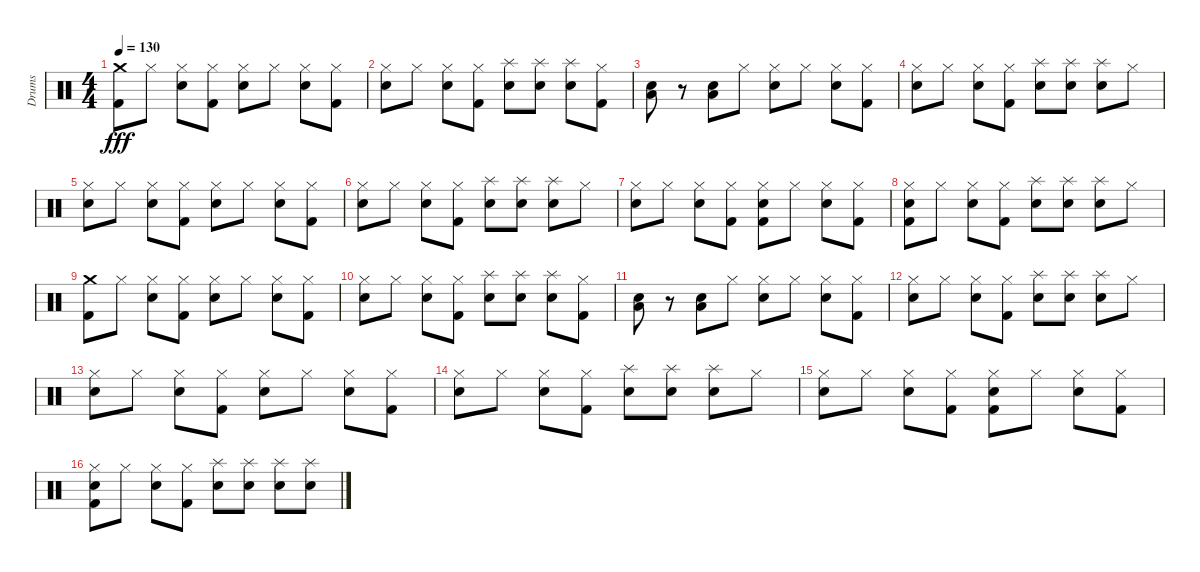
\track ("Drums" "Drums") {instrument percussion}
\staff {score}
\articulation defaults
\ts (4 4)
\tempo 130
\clef neutral
\ks c
("Crash medium (hit)" "Kick (hit) 2").8{dy fff} "Hi-Hat (closed)".8 ("Hi-Hat (closed)" "Snare (hit) 2").8 ("Hi-Hat (closed)" "Kick (hit) 2").8 ("Hi-Hat (closed)" "Snare (hit) 2").8 "Hi-Hat (closed)".8 ("Hi-Hat (closed)" "Snare (hit) 2").8 ("Hi-Hat (closed)" "Kick (hit) 2").8 |
("Hi-Hat (closed)" "Snare (hit) 2").8 "Hi-Hat (closed)".8 ("Hi-Hat (closed)" "Snare (hit) 2").8 ("Hi-Hat (closed)" "Kick (hit) 2").8 ("Splash (hit)" "Snare (hit) 2").8 ("Splash (hit)" "Snare (hit) 2").8 ("Splash (hit)" "Snare (hit) 2").8 ("Hi-Hat (closed)" "Kick (hit) 2").8 |
("Snare (hit) 2" "Low Floor Tom (hit)").8 r.8 ("Snare (hit) 2" "Low Floor Tom (hit)").8 "Hi-Hat (closed)".8 ("Hi-Hat (closed)" "Snare (hit) 2").8 "Hi-Hat (closed)".8 ("Hi-Hat (closed)" "Snare (hit) 2").8 ("Hi-Hat (closed)" "Kick (hit) 2").8 |
("Hi-Hat (closed)" "Snare (hit) 2").8 "Hi-Hat (closed)".8 ("Hi-Hat (closed)" "Snare (hit) 2").8 ("Hi-Hat (closed)" "Kick (hit) 2").8 ("Splash (hit)" "Snare (hit) 2").8 ("Splash (hit)" "Snare (hit) 2").8 ("Splash (hit)" "Snare (hit) 2").8 "Hi-Hat (closed)".8 |
("Hi-Hat (closed)" "Snare (hit) 2").8 "Hi-Hat (closed)".8 ("Hi-Hat (closed)" "Snare (hit) 2").8 ("Hi-Hat (closed)" "Kick (hit) 2").8 ("Hi-Hat (closed)" "Snare (hit) 2").8 "Hi-Hat (closed)".8 ("Hi-Hat (closed)" "Snare (hit) 2").8 ("Hi-Hat (closed)" "Kick (hit) 2").8 |
("Hi-Hat (closed)" "Snare (hit) 2").8 "Hi-Hat (closed)".8 ("Hi-Hat (closed)" "Snare (hit) 2").8 ("Hi-Hat (closed)" "Kick (hit) 2").8 ("Splash (hit)" "Snare (hit) 2").8 ("Splash (hit)" "Snare (hit) 2").8 ("Splash (hit)" "Snare (hit) 2").8 "Hi-Hat (closed)".8 |
("Hi-Hat (closed)" "Snare (hit) 2").8 "Hi-Hat (closed)".8 ("Hi-Hat (closed)" "Snare (hit) 2").8 ("Hi-Hat (closed)" "Kick (hit) 2").8 ("Hi-Hat (closed)" "Snare (hit) 2" "Kick (hit) 2").8 "Hi-Hat (closed)".8 ("Hi-Hat (closed)" "Snare (hit) 2").8 ("Hi-Hat (closed)" "Kick (hit) 2").8 |
("Hi-Hat (closed)" "Snare (hit) 2" "Kick (hit) 2").8 "Hi-Hat (closed)".8 ("Hi-Hat (closed)" "Snare (hit) 2").8 ("Hi-Hat (closed)" "Kick (hit) 2").8 ("Splash (hit)" "Snare (hit) 2").8 ("Splash (hit)" "Snare (hit) 2").8 ("Splash (hit)" "Snare (hit) 2").8 "Hi-Hat (closed)".8 |
("Crash medium (hit)" "Kick (hit) 2").8 "Hi-Hat (closed)".8 ("Hi-Hat (closed)" "Snare (hit) 2").8 ("Hi-Hat (closed)" "Kick (hit) 2").8 ("Hi-Hat (closed)" "Snare (hit) 2").8 "Hi-Hat (closed)".8 ("Hi-Hat (closed)" "Snare (hit) 2").8 ("Hi-Hat (closed)" "Kick (hit) 2").8 |
("Hi-Hat (closed)" "Snare (hit) 2").8 "Hi-Hat (closed)".8 ("Hi-Hat (closed)" "Snare (hit) 2").8 ("Hi-Hat (closed)" "Kick (hit) 2").8 ("Splash (hit)" "Snare (hit) 2").8 ("Splash (hit)" "Snare (hit) 2").8 ("Splash (hit)" "Snare (hit) 2").8 ("Hi-Hat (closed)" "Kick (hit) 2").8 |
("Snare (hit) 2" "Low Floor Tom (hit)").8 r.8 ("Snare (hit) 2" "Low Floor Tom (hit)").8 "Hi-Hat (closed)".8 ("Hi-Hat (closed)" "Snare (hit) 2").8 "Hi-Hat (closed)".8 ("Hi-Hat (closed)" "Snare (hit) 2").8 ("Hi-Hat (closed)" "Kick (hit) 2").8 |
("Hi-Hat (closed)" "Snare (hit) 2").8 "Hi-Hat (closed)".8 ("Hi-Hat (closed)" "Snare (hit) 2").8 ("Hi-Hat (closed)" "Kick (hit) 2").8 ("Splash (hit)" "Snare (hit) 2").8 ("Splash (hit)" "Snare (hit) 2").8 ("Splash (hit)" "Snare (hit) 2").8 "Hi-Hat (closed)".8 |
("Hi-Hat (closed)" "Snare (hit) 2").8 "Hi-Hat (closed)".8 ("Hi-Hat (closed)" "Snare (hit) 2").8 ("Hi-Hat (closed)" "Kick (hit) 2").8 ("Hi-Hat (closed)" "Snare (hit) 2").8 "Hi-Hat (closed)".8 ("Hi-Hat (closed)" "Snare (hit) 2").8 ("Hi-Hat (closed)" "Kick (hit) 2").8 |
("Hi-Hat (closed)" "Snare (hit) 2").8 "Hi-Hat (closed)".8 ("Hi-Hat (closed)" "Snare (hit) 2").8 ("Hi-Hat (closed)" "Kick (hit) 2").8 ("Splash (hit)" "Snare (hit) 2").8 ("Splash (hit)" "Snare (hit) 2").8 ("Splash (hit)" "Snare (hit) 2").8 "Hi-Hat (closed)".8 |
("Hi-Hat (closed)" "Snare (hit) 2").8 "Hi-Hat (closed)".8 ("Hi-Hat (closed)" "Snare (hit) 2").8 ("Hi-Hat (closed)" "Kick (hit) 2").8 ("Hi-Hat (closed)" "Snare (hit) 2" "Kick (hit) 2").8 "Hi-Hat (closed)".8 ("Hi-Hat (closed)" "Snare (hit) 2").8 ("Hi-Hat (closed)" "Kick (hit) 2").8 |
("Hi-Hat (closed)" "Snare (hit) 2" "Kick (hit) 2").8 "Hi-Hat (closed)".8 ("Hi-Hat (closed)" "Snare (hit) 2").8 ("Hi-Hat (closed)" "Kick (hit) 2").8 ("Splash (hit)" "Snare (hit) 2").8 ("Splash (hit)" "Snare (hit) 2").8 ("Splash (hit)" "Snare (hit) 2").8 ("Splash (hit)" "Snare (hit) 2").8
